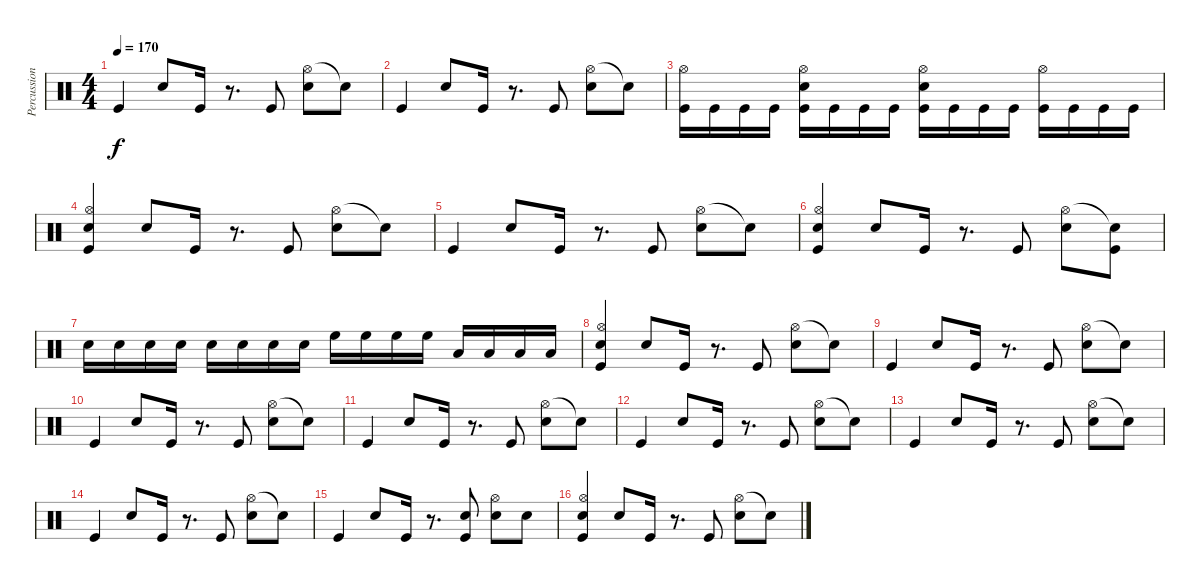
\track ("Percussions" "Percussion") {instrument percussion}
\staff {score}
\articulation defaults
\ts (4 4)
\tempo 170
\clef neutral
\ks c "Kick (hit)".4{dy f} "Electric Snare (hit)".8 "Kick (hit)".16
r.8{d} "Kick (hit)".8 ("Hi-Hat (open)" "Electric Snare (hit)").8 "Snare (hit)"{t}.8 |
"Kick (hit)".4 "Electric Snare (hit)".8 "Kick (hit)".16 r.8{d} "Kick (hit)".8 ("Hi-Hat (open)" "Electric Snare (hit)").8 "Snare (hit)"{t}.8 |
("Hi-Hat (open)" "Kick (hit)").16 "Kick (hit)".16 "Kick (hit)".16 "Kick (hit)".16 ("Hi-Hat (open)" "Electric Snare (hit)" "Kick (hit)").16 "Kick (hit)".16 "Kick (hit)".16 "Kick (hit)".16 ("Hi-Hat (open)" "Electric Snare (hit)" "Kick (hit)").16 "Kick (hit)".16 "Kick (hit)".16 "Kick (hit)".16 ("Hi-Hat (open)" "Kick (hit)").16 "Kick (hit)".16 "Kick (hit)".16 "Kick (hit)".16 |
("Hi-Hat (open)" "Snare (hit) 2" "Kick (hit)").4 "Electric Snare (hit)".8 "Kick (hit)".16 r.8{d} "Kick (hit)".8 ("Hi-Hat (open)" "Electric Snare (hit)").8 "Snare (hit)"{t}.8 |
"Kick (hit)".4 "Electric Snare (hit)".8 "Kick (hit)".16 r.8{d} "Kick (hit)".8 ("Hi-Hat (open)" "Electric Snare (hit)").8 "Snare (hit)"{t}.8 |
("Hi-Hat (open)" "Snare (hit) 2" "Kick (hit)").4 "Electric Snare (hit)".8 "Kick (hit)".16 r.8{d} "Kick (hit)".8 ("Hi-Hat (open)" "Electric Snare (hit)").8 ("Snare (hit)"{t} "Kick (hit)").8 |
"Snare (hit) 2".16 "Snare (hit) 2".16 "Snare (hit) 2".16 "Snare (hit) 2".16 "Electric Snare (hit)".16 "Electric Snare (hit)".16 "Electric Snare (hit)".16 "Electric Snare (hit)".16 "High Floor Tom (hit)".16 "High Floor Tom (hit)".16 "High Floor Tom (hit)".16 "High Floor Tom (hit)".16 "Low Tom (hit)".16 "Low Tom (hit)".16 "Low Tom (hit)".16 "Low Tom (hit)".16 |
("Hi-Hat (open)" "Snare (hit) 2" "Kick (hit)").4 "Electric Snare (hit)".8 "Kick (hit)".16 r.8{d} "Kick (hit)".8 ("Hi-Hat (open)" "Electric Snare (hit)").8 "Snare (hit)"{t}.8 |
"Kick (hit)".4 "Electric Snare (hit)".8 "Kick (hit)".16 r.8{d} "Kick (hit)".8 ("Hi-Hat (open)" "Electric Snare (hit)").8 "Snare (hit)"{t}.8 |
"Kick (hit)".4 "Electric Snare (hit)".8 "Kick (hit)".16 r.8{d} "Kick (hit)".8 ("Hi-Hat (open)" "Electric Snare (hit)").8 "Snare (hit)"{t}.8 |
"Kick (hit)".4 "Electric Snare (hit)".8 "Kick (hit)".16 r.8{d} "Kick (hit)".8 ("Hi-Hat (open)" "Electric Snare (hit)").8 "Snare (hit)"{t}.8 |
"Kick (hit)".4 "Electric Snare (hit)".8 "Kick (hit)".16 r.8{d} "Kick (hit)".8 ("Hi-Hat (open)" "Electric Snare (hit)").8 "Snare (hit)"{t}.8 |
"Kick (hit)".4 "Electric Snare (hit)".8 "Kick (hit)".16 r.8{d} "Kick (hit)".8 ("Hi-Hat (open)" "Electric Snare (hit)").8 "Snare (hit)"{t}.8 |
"Kick (hit)".4 "Electric Snare (hit)".8 "Kick (hit)".16 r.8{d} "Kick (hit)".8 ("Hi-Hat (open)" "Electric Snare (hit)").8 "Snare (hit)"{t}.8 |
"Kick (hit)".4 "Electric Snare (hit)".8 "Kick (hit)".16 r.8{d} ("Snare (hit) 2" "Kick (hit)").8 ("Hi-Hat (open)" "Snare (hit) 2").8 "Snare (hit) 2".8 |
("Hi-Hat (open)" "Snare (hit) 2" "Kick (hit)").4 "Electric Snare (hit)".8 "Kick (hit)".16 r.8{d} "Kick (hit)".8 ("Hi-Hat (open)" "Electric Snare (hit)").8 "Snare (hit)"{t}.8
